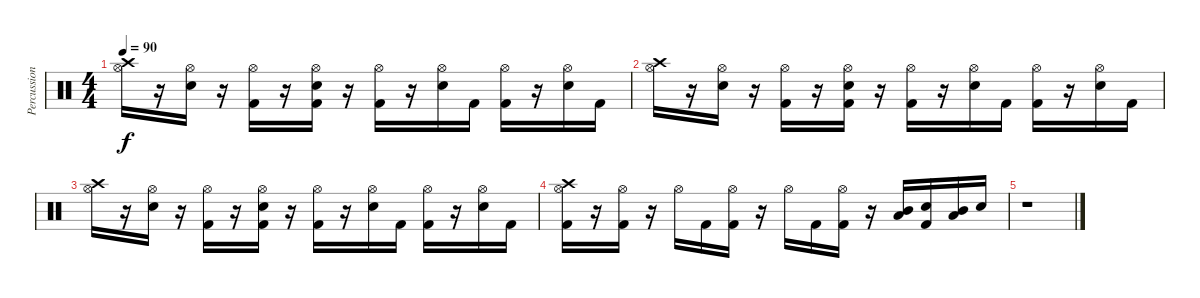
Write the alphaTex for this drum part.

\track ("Percussion" "Percussion") {instrument percussion}
\staff {score}
\articulation defaults
\ts (4 4)
\tempo 90
\clef neutral
\ks c
("Crash high (hit)" "Hi-Hat (open)").16{dy f} r.16 ("Hi-Hat (open)" "Electric Snare (hit)").16 r.16 ("Hi-Hat (open)" "Kick (hit) 2").16 r.16 ("Hi-Hat (open)" "Electric Snare (hit)" "Kick (hit) 2").16 r.16 ("Hi-Hat (open)" "Kick (hit) 2").16 r.16 ("Hi-Hat (open)" "Electric Snare (hit)").16 "Kick (hit) 2".16 ("Hi-Hat (open)" "Kick (hit) 2").16 r.16 ("Hi-Hat (open)" "Electric Snare (hit)").16 "Kick (hit) 2".16 |
("Crash high (hit)" "Hi-Hat (open)").16 r.16 ("Hi-Hat (open)" "Electric Snare (hit)").16 r.16 ("Hi-Hat (open)" "Kick (hit) 2").16 r.16 ("Hi-Hat (open)" "Electric Snare (hit)" "Kick (hit) 2").16 r.16 ("Hi-Hat (open)" "Kick (hit) 2").16 r.16 ("Hi-Hat (open)" "Electric Snare (hit)").16 "Kick (hit) 2".16 ("Hi-Hat (open)" "Kick (hit) 2").16 r.16 ("Hi-Hat (open)" "Electric Snare (hit)").16 "Kick (hit) 2".16 |
("Crash high (hit)" "Hi-Hat (open)").16 r.16 ("Hi-Hat (open)" "Electric Snare (hit)").16 r.16 ("Hi-Hat (open)" "Kick (hit) 2").16 r.16 ("Hi-Hat (open)" "Electric Snare (hit)" "Kick (hit) 2").16 r.16 ("Hi-Hat (open)" "Kick (hit) 2").16 r.16 ("Hi-Hat (open)" "Electric Snare (hit)").16 "Kick (hit) 2".16 ("Hi-Hat (open)" "Kick (hit) 2").16 r.16 ("Hi-Hat (open)" "Electric Snare (hit)").16 "Kick (hit) 2".16 |
("Crash high (hit)" "Hi-Hat (open)" "Kick (hit) 2").16 r.16 ("Hi-Hat (open)" "Kick (hit) 2").16 r.16 "Hi-Hat (open)".16 "Kick (hit) 2".16 ("Hi-Hat (open)" "Kick (hit) 2").16 r.16 "Hi-Hat (open)".16 "Kick (hit) 2".16 ("Hi-Hat (open)" "Kick (hit) 2").16 r.16 ("Mid Tom (hit)" "Low Floor Tom (hit)").16 ("Electric Snare (hit)" "Kick (hit) 2").16 ("Mid Tom (hit)" "Low Floor Tom (hit)").16 "Electric Snare (hit)".16 |
r.1
